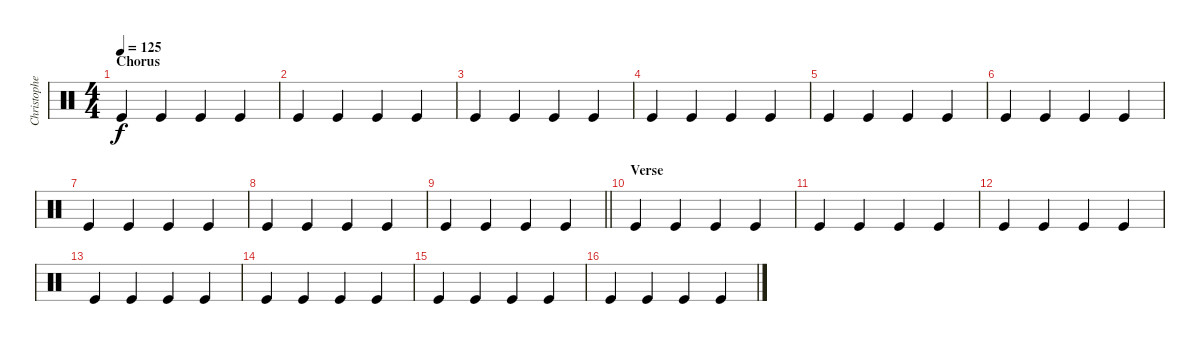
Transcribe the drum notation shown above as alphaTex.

\track ("Christopher - Drums" "Christophe") {instrument percussion}
\staff {score}
\articulation defaults
\ts (4 4)
\section ("" "Chorus")
\tempo 125
\clef neutral
\ks c "Kick (hit)".4{dy f} "Kick (hit)".4 "Kick (hit)".4 "Kick (hit)".4
|
"Kick (hit)".4 "Kick (hit)".4 "Kick (hit)".4 "Kick (hit)".4 |
"Kick (hit)".4 "Kick (hit)".4 "Kick (hit)".4 "Kick (hit)".4 |
"Kick (hit)".4 "Kick (hit)".4 "Kick (hit)".4 "Kick (hit)".4 |
"Kick (hit)".4 "Kick (hit)".4 "Kick (hit)".4 "Kick (hit)".4 |
"Kick (hit)".4 "Kick (hit)".4 "Kick (hit)".4 "Kick (hit)".4 |
"Kick (hit)".4 "Kick (hit)".4 "Kick (hit)".4 "Kick (hit)".4 |
"Kick (hit)".4 "Kick (hit)".4 "Kick (hit)".4 "Kick (hit)".4 |
\barLineRight lightlight "Kick (hit)".4 "Kick (hit)".4 "Kick (hit)".4 "Kick (hit)".4
|
\section ("" "Verse")
"Kick (hit)".4 "Kick (hit)".4 "Kick (hit)".4 "Kick (hit)".4 |
"Kick (hit)".4 "Kick (hit)".4 "Kick (hit)".4 "Kick (hit)".4 |
"Kick (hit)".4 "Kick (hit)".4 "Kick (hit)".4 "Kick (hit)".4 |
"Kick (hit)".4 "Kick (hit)".4 "Kick (hit)".4 "Kick (hit)".4 |
"Kick (hit)".4 "Kick (hit)".4 "Kick (hit)".4 "Kick (hit)".4 |
"Kick (hit)".4 "Kick (hit)".4 "Kick (hit)".4 "Kick (hit)".4 |
"Kick (hit)".4 "Kick (hit)".4 "Kick (hit)".4 "Kick (hit)".4
